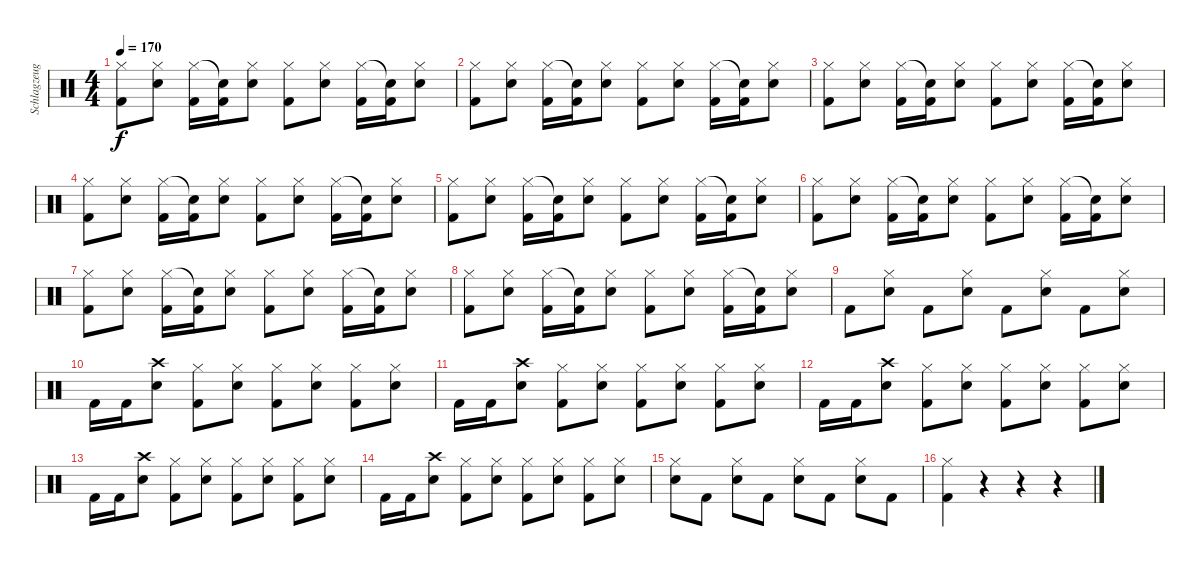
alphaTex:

\track ("Schlagzeug (Bela)" "Schlagzeug") {instrument percussion}
\staff {score}
\articulation defaults
\ts (4 4)
\tempo 170
\clef neutral
\ks c
("Hi-Hat (closed)" "Kick (hit) 2").8{dy f} ("Hi-Hat (closed)" "Snare (hit) 2").8 ("Hi-Hat (closed)" "Kick (hit) 2").16 ("Snare (hit)"{t} "Kick (hit) 2").16 ("Hi-Hat (closed)" "Snare (hit) 2").8 ("Hi-Hat (closed)" "Kick (hit) 2").8 ("Hi-Hat (closed)" "Snare (hit) 2").8 ("Hi-Hat (closed)" "Kick (hit) 2").16 ("Snare (hit)"{t} "Kick (hit) 2").16 ("Hi-Hat (closed)" "Snare (hit) 2").8 |
("Hi-Hat (closed)" "Kick (hit) 2").8 ("Hi-Hat (closed)" "Snare (hit) 2").8 ("Hi-Hat (closed)" "Kick (hit) 2").16 ("Snare (hit)"{t} "Kick (hit) 2").16 ("Hi-Hat (closed)" "Snare (hit) 2").8 ("Hi-Hat (closed)" "Kick (hit) 2").8 ("Hi-Hat (closed)" "Snare (hit) 2").8 ("Hi-Hat (closed)" "Kick (hit) 2").16 ("Snare (hit)"{t} "Kick (hit) 2").16 ("Hi-Hat (closed)" "Snare (hit) 2").8 |
("Hi-Hat (closed)" "Kick (hit) 2").8 ("Hi-Hat (closed)" "Snare (hit) 2").8 ("Hi-Hat (closed)" "Kick (hit) 2").16 ("Snare (hit)"{t} "Kick (hit) 2").16 ("Hi-Hat (closed)" "Snare (hit) 2").8 ("Hi-Hat (closed)" "Kick (hit) 2").8 ("Hi-Hat (closed)" "Snare (hit) 2").8 ("Hi-Hat (closed)" "Kick (hit) 2").16 ("Snare (hit)"{t} "Kick (hit) 2").16 ("Hi-Hat (closed)" "Snare (hit) 2").8 |
("Hi-Hat (closed)" "Kick (hit) 2").8 ("Hi-Hat (closed)" "Snare (hit) 2").8 ("Hi-Hat (closed)" "Kick (hit) 2").16 ("Snare (hit)"{t} "Kick (hit) 2").16 ("Hi-Hat (closed)" "Snare (hit) 2").8 ("Hi-Hat (closed)" "Kick (hit) 2").8 ("Hi-Hat (closed)" "Snare (hit) 2").8 ("Hi-Hat (closed)" "Kick (hit) 2").16 ("Snare (hit)"{t} "Kick (hit) 2").16 ("Hi-Hat (closed)" "Snare (hit) 2").8 |
("Hi-Hat (closed)" "Kick (hit) 2").8 ("Hi-Hat (closed)" "Snare (hit) 2").8 ("Hi-Hat (closed)" "Kick (hit) 2").16 ("Snare (hit)"{t} "Kick (hit) 2").16 ("Hi-Hat (closed)" "Snare (hit) 2").8 ("Hi-Hat (closed)" "Kick (hit) 2").8 ("Hi-Hat (closed)" "Snare (hit) 2").8 ("Hi-Hat (closed)" "Kick (hit) 2").16 ("Snare (hit)"{t} "Kick (hit) 2").16 ("Hi-Hat (closed)" "Snare (hit) 2").8 |
("Hi-Hat (closed)" "Kick (hit) 2").8 ("Hi-Hat (closed)" "Snare (hit) 2").8 ("Hi-Hat (closed)" "Kick (hit) 2").16 ("Snare (hit)"{t} "Kick (hit) 2").16 ("Hi-Hat (closed)" "Snare (hit) 2").8 ("Hi-Hat (closed)" "Kick (hit) 2").8 ("Hi-Hat (closed)" "Snare (hit) 2").8 ("Hi-Hat (closed)" "Kick (hit) 2").16 ("Snare (hit)"{t} "Kick (hit) 2").16 ("Hi-Hat (closed)" "Snare (hit) 2").8 |
("Hi-Hat (closed)" "Kick (hit) 2").8 ("Hi-Hat (closed)" "Snare (hit) 2").8 ("Hi-Hat (closed)" "Kick (hit) 2").16 ("Snare (hit)"{t} "Kick (hit) 2").16 ("Hi-Hat (closed)" "Snare (hit) 2").8 ("Hi-Hat (closed)" "Kick (hit) 2").8 ("Hi-Hat (closed)" "Snare (hit) 2").8 ("Hi-Hat (closed)" "Kick (hit) 2").16 ("Snare (hit)"{t} "Kick (hit) 2").16 ("Hi-Hat (closed)" "Snare (hit) 2").8 |
("Hi-Hat (closed)" "Kick (hit) 2").8 ("Hi-Hat (closed)" "Snare (hit) 2").8 ("Hi-Hat (closed)" "Kick (hit) 2").16 ("Snare (hit)"{t} "Kick (hit) 2").16 ("Hi-Hat (closed)" "Snare (hit) 2").8 ("Hi-Hat (closed)" "Kick (hit) 2").8 ("Hi-Hat (closed)" "Snare (hit) 2").8 ("Hi-Hat (closed)" "Kick (hit) 2").16 ("Snare (hit)"{t} "Kick (hit) 2").16 ("Hi-Hat (closed)" "Snare (hit) 2").8 |
"Kick (hit) 2".8 ("Hi-Hat (closed)" "Snare (hit) 2").8 "Kick (hit) 2".8 ("Hi-Hat (closed)" "Snare (hit) 2").8 "Kick (hit) 2".8 ("Hi-Hat (closed)" "Snare (hit) 2").8 "Kick (hit) 2".8 ("Hi-Hat (closed)" "Snare (hit) 2").8 |
"Kick (hit) 2".16 "Kick (hit) 2".16 ("Snare (hit) 2" "Crash high (hit)").8 ("Hi-Hat (closed)" "Kick (hit) 2").8 ("Hi-Hat (closed)" "Snare (hit) 2").8 ("Hi-Hat (closed)" "Kick (hit) 2").8 ("Hi-Hat (closed)" "Snare (hit) 2").8 ("Hi-Hat (closed)" "Kick (hit) 2").8 ("Hi-Hat (closed)" "Snare (hit) 2").8 |
"Kick (hit) 2".16 "Kick (hit) 2".16 ("Snare (hit) 2" "Crash high (hit)").8 ("Hi-Hat (closed)" "Kick (hit) 2").8 ("Hi-Hat (closed)" "Snare (hit) 2").8 ("Hi-Hat (closed)" "Kick (hit) 2").8 ("Hi-Hat (closed)" "Snare (hit) 2").8 ("Hi-Hat (closed)" "Kick (hit) 2").8 ("Hi-Hat (closed)" "Snare (hit) 2").8 |
"Kick (hit) 2".16 "Kick (hit) 2".16 ("Snare (hit) 2" "Crash high (hit)").8 ("Hi-Hat (closed)" "Kick (hit) 2").8 ("Hi-Hat (closed)" "Snare (hit) 2").8 ("Hi-Hat (closed)" "Kick (hit) 2").8 ("Hi-Hat (closed)" "Snare (hit) 2").8 ("Hi-Hat (closed)" "Kick (hit) 2").8 ("Hi-Hat (closed)" "Snare (hit) 2").8 |
"Kick (hit) 2".16 "Kick (hit) 2".16 ("Snare (hit) 2" "Crash high (hit)").8 ("Hi-Hat (closed)" "Kick (hit) 2").8 ("Hi-Hat (closed)" "Snare (hit) 2").8 ("Hi-Hat (closed)" "Kick (hit) 2").8 ("Hi-Hat (closed)" "Snare (hit) 2").8 ("Hi-Hat (closed)" "Kick (hit) 2").8 ("Hi-Hat (closed)" "Snare (hit) 2").8 |
"Kick (hit) 2".16 "Kick (hit) 2".16 ("Snare (hit) 2" "Crash high (hit)").8 ("Hi-Hat (closed)" "Kick (hit) 2").8 ("Hi-Hat (closed)" "Snare (hit) 2").8 ("Hi-Hat (closed)" "Kick (hit) 2").8 ("Hi-Hat (closed)" "Snare (hit) 2").8 ("Hi-Hat (closed)" "Kick (hit) 2").8 ("Hi-Hat (closed)" "Snare (hit) 2").8 |
("Hi-Hat (closed)" "Snare (hit) 2").8 "Kick (hit) 2".8 ("Hi-Hat (closed)" "Snare (hit) 2").8 "Kick (hit) 2".8 ("Hi-Hat (closed)" "Snare (hit) 2").8 "Kick (hit) 2".8 ("Hi-Hat (closed)" "Snare (hit) 2").8 "Kick (hit) 2".8 |
("Hi-Hat (closed)" "Kick (hit) 2").4 r.4 r.4 r.4
